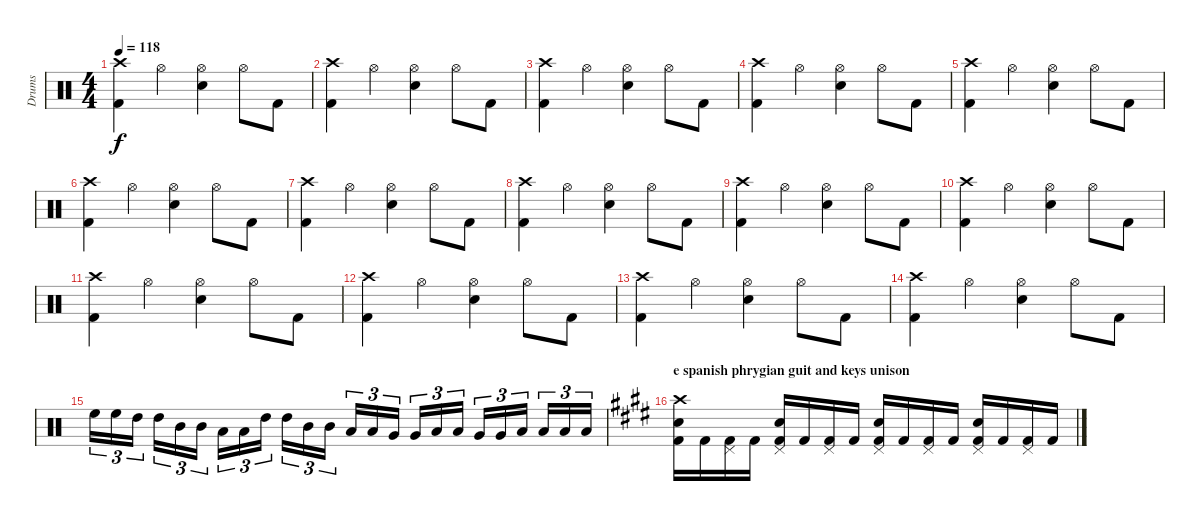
\track ("Drums" "Drums") {instrument percussion}
\staff {score}
\articulation defaults
\ts (4 4)
\tempo 118
\clef neutral
\ks aminor
("Crash high (hit)" "Kick (hit) 2").4{dy f} "Hi-Hat (open)".4 ("Hi-Hat (open)" "Electric Snare (hit)").4 "Hi-Hat (open)".8 "Kick (hit) 2".8 |
("Crash high (hit)" "Kick (hit) 2").4 "Hi-Hat (open)".4 ("Hi-Hat (open)" "Electric Snare (hit)").4 "Hi-Hat (open)".8 "Kick (hit) 2".8 |
("Crash high (hit)" "Kick (hit) 2").4 "Hi-Hat (open)".4 ("Hi-Hat (open)" "Electric Snare (hit)").4 "Hi-Hat (open)".8 "Kick (hit) 2".8 |
("Crash high (hit)" "Kick (hit) 2").4 "Hi-Hat (open)".4 ("Hi-Hat (open)" "Electric Snare (hit)").4 "Hi-Hat (open)".8 "Kick (hit) 2".8 |
("Crash high (hit)" "Kick (hit) 2").4 "Hi-Hat (open)".4 ("Hi-Hat (open)" "Electric Snare (hit)").4 "Hi-Hat (open)".8 "Kick (hit) 2".8 |
("Crash high (hit)" "Kick (hit) 2").4 "Hi-Hat (open)".4 ("Hi-Hat (open)" "Electric Snare (hit)").4 "Hi-Hat (open)".8 "Kick (hit) 2".8 |
("Crash high (hit)" "Kick (hit) 2").4 "Hi-Hat (open)".4 ("Hi-Hat (open)" "Electric Snare (hit)").4 "Hi-Hat (open)".8 "Kick (hit) 2".8 |
("Crash high (hit)" "Kick (hit) 2").4 "Hi-Hat (open)".4 ("Hi-Hat (open)" "Electric Snare (hit)").4 "Hi-Hat (open)".8 "Kick (hit) 2".8 |
("Crash high (hit)" "Kick (hit) 2").4 "Hi-Hat (open)".4 ("Hi-Hat (open)" "Electric Snare (hit)").4 "Hi-Hat (open)".8 "Kick (hit) 2".8 |
("Crash high (hit)" "Kick (hit) 2").4 "Hi-Hat (open)".4 ("Hi-Hat (open)" "Electric Snare (hit)").4 "Hi-Hat (open)".8 "Kick (hit) 2".8 |
("Crash high (hit)" "Kick (hit) 2").4 "Hi-Hat (open)".4 ("Hi-Hat (open)" "Electric Snare (hit)").4 "Hi-Hat (open)".8 "Kick (hit) 2".8 |
("Crash high (hit)" "Kick (hit) 2").4 "Hi-Hat (open)".4 ("Hi-Hat (open)" "Electric Snare (hit)").4 "Hi-Hat (open)".8 "Kick (hit) 2".8 |
("Crash high (hit)" "Kick (hit) 2").4 "Hi-Hat (open)".4 ("Hi-Hat (open)" "Electric Snare (hit)").4 "Hi-Hat (open)".8 "Kick (hit) 2".8 |
("Crash high (hit)" "Kick (hit) 2").4 "Hi-Hat (open)".4 ("Hi-Hat (open)" "Electric Snare (hit)").4 "Hi-Hat (open)".8 "Kick (hit) 2".8 |
"High Floor Tom (hit)".16{tu (3 2)} "High Floor Tom (hit)".16{tu (3 2)} "High Tom (hit)".16{tu (3 2)} "High Tom (hit)".16{tu (3 2)} "Mid Tom (hit)".16{tu (3 2)} "Mid Tom (hit)".16{tu (3 2)} "Low Tom (hit)".16{tu (3 2)} "Low Tom (hit)".16{tu (3 2)} "High Tom (hit)".16{tu (3 2)} "High Tom (hit)".16{tu (3 2)} "Mid Tom (hit)".16{tu (3 2)} "Mid Tom (hit)".16{tu (3 2)} "Low Tom (hit)".16{tu (3 2)} "Low Tom (hit)".16{tu (3 2)} "Very Low Tom (hit)".16{tu (3 2)} "Very Low Tom (hit)".16{tu (3 2)} "Low Tom (hit)".16{tu (3 2)} "Low Tom (hit)".16{tu (3 2)} "Very Low Tom (hit)".16{tu (3 2)} "Very Low Tom (hit)".16{tu (3 2)} "Low Floor Tom (hit)".16{tu (3 2)} "Low Floor Tom (hit)".16{tu (3 2)} "Low Floor Tom (hit)".16{tu (3 2)} "Low Floor Tom (hit)".16{tu (3 2)} |
\section ("" "e spanish phrygian guit and keys unison")
\ks e
("Crash high (hit)" "Electric Snare (hit)" "Kick (hit) 2").16 "Kick (hit) 2".16 ("Pedal Hi-Hat (hit)" "Kick (hit) 2").16 "Kick (hit) 2".16 ("Pedal Hi-Hat (hit)" "Electric Snare (hit)" "Kick (hit) 2").16 "Kick (hit) 2".16 ("Pedal Hi-Hat (hit)" "Kick (hit) 2").16 "Kick (hit) 2".16 ("Pedal Hi-Hat (hit)" "Electric Snare (hit)" "Kick (hit) 2").16 "Kick (hit) 2".16 ("Pedal Hi-Hat (hit)" "Kick (hit) 2").16 "Kick (hit) 2".16 ("Pedal Hi-Hat (hit)" "Electric Snare (hit)" "Kick (hit) 2").16 "Kick (hit) 2".16 ("Pedal Hi-Hat (hit)" "Kick (hit) 2").16 "Kick (hit) 2".16
